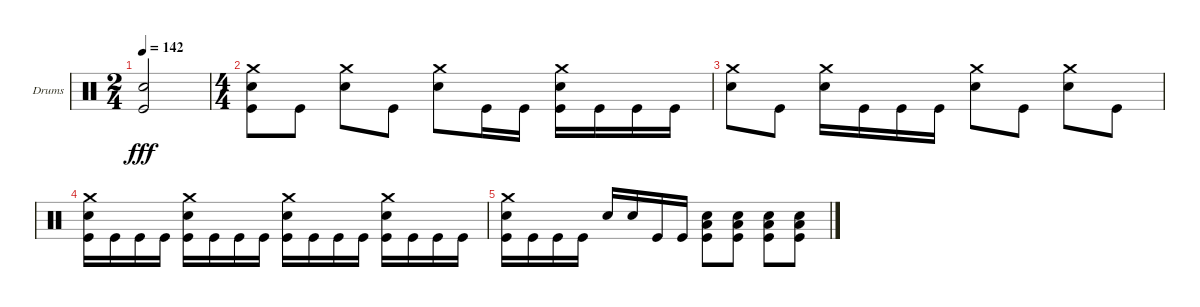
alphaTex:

\defaultSystemsLayout 4
\bracketExtendMode groupsimilarinstruments
\firstSystemTrackNameOrientation horizontal
\otherSystemsTrackNameOrientation horizontal
\track ("Drumkit" "Drums") {instrument percussion}
\staff {score}
\articulation defaults
\ts (2 4)
\tempo 142
\clef neutral
\scale
0.472222
\ks c
("Snare (hit) 2" "Kick (hit)").2{dy fff} |
\ts (4 4)
\scale
0.472222 ("Snare (hit) 2" "Crash medium (hit)" "Kick (hit)").8 "Kick (hit)".8 ("Snare (hit) 2" "Crash medium (hit)").8 "Kick (hit)".8 ("Crash medium (hit)" "Snare (hit) 2").8 "Kick (hit)".16 "Kick (hit)".16 ("Snare (hit) 2" "Crash medium (hit)" "Kick (hit)").16 "Kick (hit)".16 "Kick (hit)".16 "Kick (hit)".16 |
\scale
0.263889 ("Snare (hit) 2" "Crash medium (hit)").8 "Kick (hit)".8 ("Snare (hit) 2" "Crash medium (hit)").16 "Kick (hit)".16 "Kick (hit)".16 "Kick (hit)".16 ("Snare (hit) 2" "Crash medium (hit)").8 "Kick (hit)".8 ("Snare (hit) 2" "Crash medium (hit)").8 "Kick (hit)".8 |
\scale
0.263889 ("Snare (hit) 2" "Kick (hit)" "Crash medium (hit)").16 "Kick (hit)".16 "Kick (hit)".16 "Kick (hit)".16 ("Snare (hit) 2" "Kick (hit)" "Crash medium (hit)").16 "Kick (hit)".16 "Kick (hit)".16 "Kick (hit)".16 ("Snare (hit) 2" "Kick (hit)" "Crash medium (hit)").16 "Kick (hit)".16 "Kick (hit)".16 "Kick (hit)".16 ("Snare (hit) 2" "Kick (hit)" "Crash medium (hit)").16 "Kick (hit)".16 "Kick (hit)".16 "Kick (hit)".16 |
("Snare (hit) 2" "Kick (hit)" "Crash medium (hit)").16 "Kick (hit)".16 "Kick (hit)".16 "Kick (hit)".16 "Snare (hit) 2".16 "Snare (hit) 2".16 "Kick (hit)".16 "Kick (hit)".16 ("Kick (hit)" "Low Tom (hit)" "Snare (hit) 2").8 ("Kick (hit)" "Low Tom (hit)" "Snare (hit) 2").8 ("Kick (hit)" "Low Tom (hit)" "Snare (hit) 2").8 ("Kick (hit)" "Low Tom (hit)" "Snare (hit) 2").8
